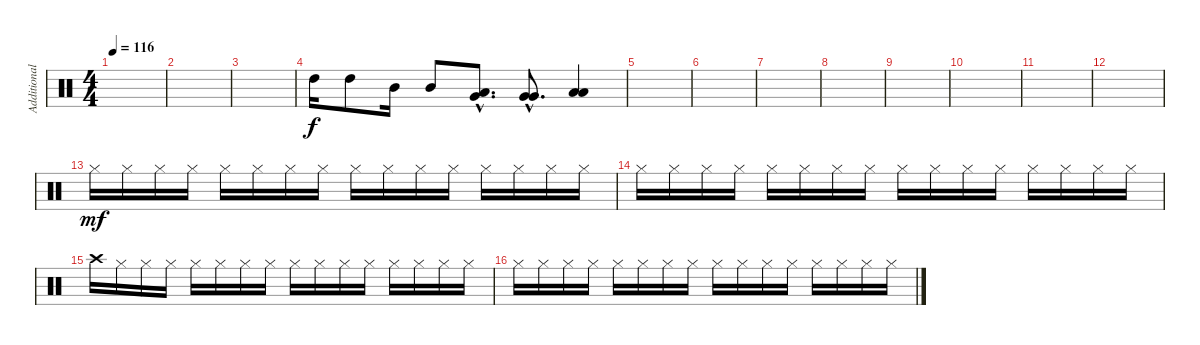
\track ("Additional Drums" "Additional") {instrument percussion}
\staff {score}
\articulation defaults
\ts (4 4)
\tempo 116
\clef neutral
\ks c
|
|
|
"High Tom (hit)".16{dy f} "High Tom (hit)".8 "Mid Tom (hit)".16 "Mid Tom (hit)".8 ("Low Tom (hit)"{hac} "Very Low Tom (hit)"{hac}).8{d} ("Very Low Tom (hit)"{hac} "Very Low Tom (hit)"{hac}).8{d} ("Low Floor Tom (hit)" "Low Floor Tom (hit)").4 |
|
|
|
|
|
|
|
|
"Hi-Hat (closed)".16{dy mf} "Hi-Hat (closed)".16 "Hi-Hat (closed)".16 "Hi-Hat (closed)".16 "Hi-Hat (closed)".16 "Hi-Hat (closed)".16 "Hi-Hat (closed)".16 "Hi-Hat (closed)".16 "Hi-Hat (closed)".16 "Hi-Hat (closed)".16 "Hi-Hat (closed)".16 "Hi-Hat (closed)".16 "Hi-Hat (closed)".16 "Hi-Hat (closed)".16 "Hi-Hat (closed)".16 "Hi-Hat (closed)".16 |
"Hi-Hat (closed)".16 "Hi-Hat (closed)".16 "Hi-Hat (closed)".16 "Hi-Hat (closed)".16 "Hi-Hat (closed)".16 "Hi-Hat (closed)".16 "Hi-Hat (closed)".16 "Hi-Hat (closed)".16 "Hi-Hat (closed)".16 "Hi-Hat (closed)".16 "Hi-Hat (closed)".16 "Hi-Hat (closed)".16 "Hi-Hat (closed)".16 "Hi-Hat (closed)".16 "Hi-Hat (closed)".16 "Hi-Hat (closed)".16 |
"Crash high (hit)".16 "Hi-Hat (closed)".16 "Hi-Hat (closed)".16 "Hi-Hat (closed)".16 "Hi-Hat (closed)".16 "Hi-Hat (closed)".16 "Hi-Hat (closed)".16 "Hi-Hat (closed)".16 "Hi-Hat (closed)".16 "Hi-Hat (closed)".16 "Hi-Hat (closed)".16 "Hi-Hat (closed)".16 "Hi-Hat (closed)".16 "Hi-Hat (closed)".16 "Hi-Hat (closed)".16 "Hi-Hat (closed)".16 |
"Hi-Hat (closed)".16 "Hi-Hat (closed)".16 "Hi-Hat (closed)".16 "Hi-Hat (closed)".16 "Hi-Hat (closed)".16 "Hi-Hat (closed)".16 "Hi-Hat (closed)".16 "Hi-Hat (closed)".16 "Hi-Hat (closed)".16 "Hi-Hat (closed)".16 "Hi-Hat (closed)".16 "Hi-Hat (closed)".16 "Hi-Hat (closed)".16 "Hi-Hat (closed)".16 "Hi-Hat (closed)".16 "Hi-Hat (closed)".16
